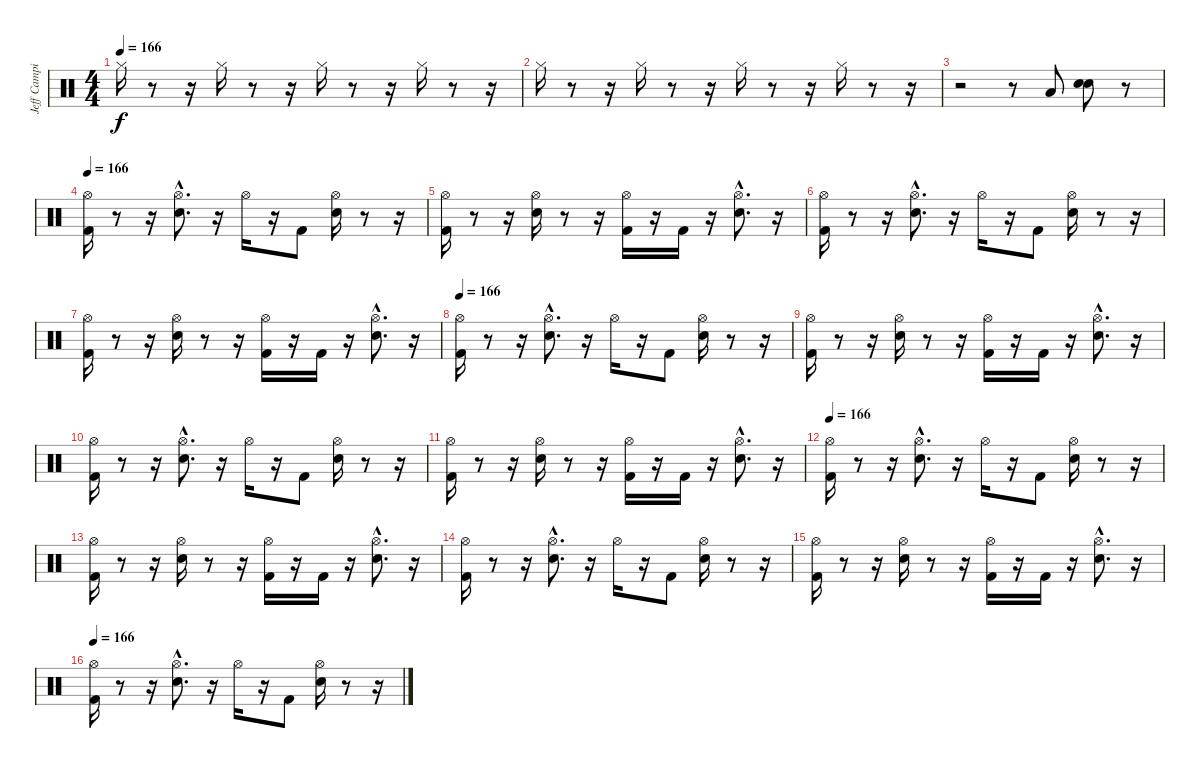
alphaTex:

\track ("Jeff Campitelli" "Jeff Campi") {instrument percussion}
\staff {score}
\articulation defaults
\ts (4 4)
\tempo 166
\clef neutral
\ks c "Hi-Hat (closed)".16{dy f}
r.8 r.16 "Hi-Hat (closed)".16 r.8 r.16 "Hi-Hat (closed)".16 r.8 r.16 "Hi-Hat (closed)".16 r.8 r.16 |
"Hi-Hat (closed)".16 r.8 r.16 "Hi-Hat (closed)".16 r.8 r.16 "Hi-Hat (closed)".16 r.8 r.16 "Hi-Hat (closed)".16 r.8 r.16 |
r.2 r.8 "Low Floor Tom (hit)".8 ("Snare (hit)" "Snare (hit) 2").8 r.8 |
\tempo 166
("Kick (hit) 2" "Hi-Hat (open)").16 r.8 r.16 ("Hi-Hat (open)"{hac} "Snare (hit) 2"{hac}).8{d} r.16 "Hi-Hat (open)".16 r.16 "Kick (hit) 2".8 ("Snare (hit) 2" "Hi-Hat (open)").16 r.8 r.16 |
("Kick (hit) 2" "Hi-Hat (open)").16 r.8 r.16 ("Snare (hit) 2" "Hi-Hat (open)").16 r.8 r.16 ("Kick (hit) 2" "Hi-Hat (open)").16 r.16 "Kick (hit) 2".16 r.16 ("Snare (hit) 2"{hac} "Hi-Hat (open)"{hac}).8{d} r.16 |
("Kick (hit) 2" "Hi-Hat (open)").16 r.8 r.16 ("Hi-Hat (open)"{hac} "Snare (hit) 2"{hac}).8{d} r.16 "Hi-Hat (open)".16 r.16 "Kick (hit) 2".8 ("Snare (hit) 2" "Hi-Hat (open)").16 r.8 r.16 |
("Kick (hit) 2" "Hi-Hat (open)").16 r.8 r.16 ("Snare (hit) 2" "Hi-Hat (open)").16 r.8 r.16 ("Kick (hit) 2" "Hi-Hat (open)").16 r.16 "Kick (hit) 2".16 r.16 ("Snare (hit) 2"{hac} "Hi-Hat (open)"{hac}).8{d} r.16 |
\tempo 166
("Kick (hit) 2" "Hi-Hat (open)").16 r.8 r.16 ("Hi-Hat (open)"{hac} "Snare (hit) 2"{hac}).8{d} r.16 "Hi-Hat (open)".16 r.16 "Kick (hit) 2".8 ("Snare (hit) 2" "Hi-Hat (open)").16 r.8 r.16 |
("Kick (hit) 2" "Hi-Hat (open)").16 r.8 r.16 ("Snare (hit) 2" "Hi-Hat (open)").16 r.8 r.16 ("Kick (hit) 2" "Hi-Hat (open)").16 r.16 "Kick (hit) 2".16 r.16 ("Snare (hit) 2"{hac} "Hi-Hat (open)"{hac}).8{d} r.16 |
("Kick (hit) 2" "Hi-Hat (open)").16 r.8 r.16 ("Hi-Hat (open)"{hac} "Snare (hit) 2"{hac}).8{d} r.16 "Hi-Hat (open)".16 r.16 "Kick (hit) 2".8 ("Snare (hit) 2" "Hi-Hat (open)").16 r.8 r.16 |
("Kick (hit) 2" "Hi-Hat (open)").16 r.8 r.16 ("Snare (hit) 2" "Hi-Hat (open)").16 r.8 r.16 ("Kick (hit) 2" "Hi-Hat (open)").16 r.16 "Kick (hit) 2".16 r.16 ("Snare (hit) 2"{hac} "Hi-Hat (open)"{hac}).8{d} r.16 |
\tempo 166
("Kick (hit) 2" "Hi-Hat (open)").16 r.8 r.16 ("Hi-Hat (open)"{hac} "Snare (hit) 2"{hac}).8{d} r.16 "Hi-Hat (open)".16 r.16 "Kick (hit) 2".8 ("Snare (hit) 2" "Hi-Hat (open)").16 r.8 r.16 |
("Kick (hit) 2" "Hi-Hat (open)").16 r.8 r.16 ("Snare (hit) 2" "Hi-Hat (open)").16 r.8 r.16 ("Kick (hit) 2" "Hi-Hat (open)").16 r.16 "Kick (hit) 2".16 r.16 ("Snare (hit) 2"{hac} "Hi-Hat (open)"{hac}).8{d} r.16 |
("Kick (hit) 2" "Hi-Hat (open)").16 r.8 r.16 ("Hi-Hat (open)"{hac} "Snare (hit) 2"{hac}).8{d} r.16 "Hi-Hat (open)".16 r.16 "Kick (hit) 2".8 ("Snare (hit) 2" "Hi-Hat (open)").16 r.8 r.16 |
("Kick (hit) 2" "Hi-Hat (open)").16 r.8 r.16 ("Snare (hit) 2" "Hi-Hat (open)").16 r.8 r.16 ("Kick (hit) 2" "Hi-Hat (open)").16 r.16 "Kick (hit) 2".16 r.16 ("Snare (hit) 2"{hac} "Hi-Hat (open)"{hac}).8{d} r.16 |
\tempo 166
("Kick (hit) 2" "Hi-Hat (open)").16 r.8 r.16 ("Hi-Hat (open)"{hac} "Snare (hit) 2"{hac}).8{d} r.16 "Hi-Hat (open)".16 r.16 "Kick (hit) 2".8 ("Snare (hit) 2" "Hi-Hat (open)").16 r.8 r.16
